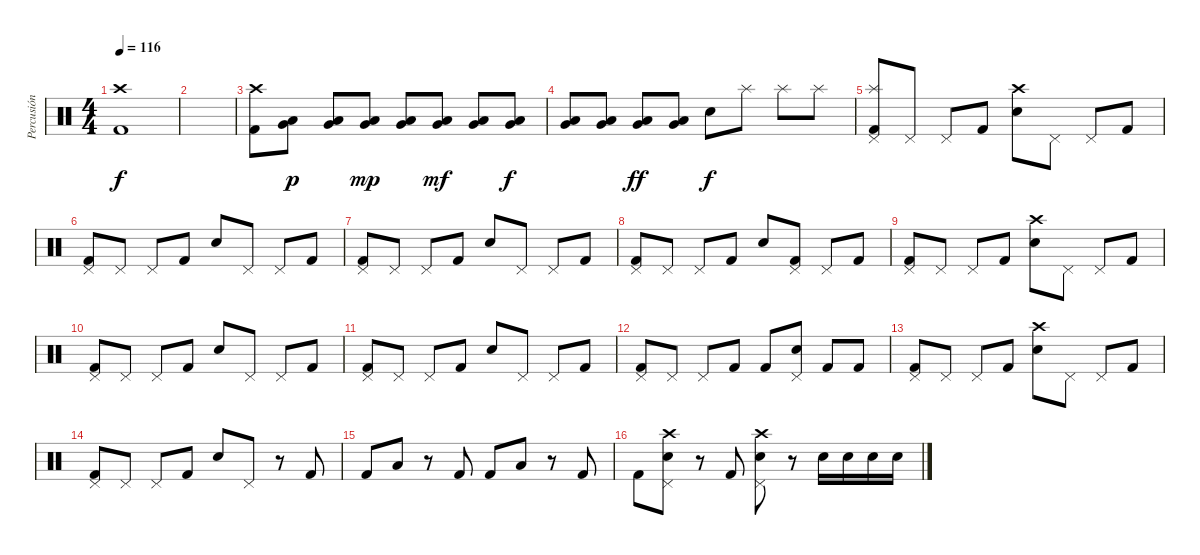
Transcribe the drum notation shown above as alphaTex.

\track ("Percusión" "Percusión") {instrument percussion}
\staff {score}
\articulation defaults
\ts (4 4)
\tempo 116
\clef neutral
\ks c
("Crash high (hit)" "Kick (hit) 2").1{dy f} |
|
("Crash high (hit)" "Kick (hit) 2").8 ("Very Low Tom (hit)" "Low Floor Tom (hit)").8{dy p} ("Very Low Tom (hit)" "Low Floor Tom (hit)").8 ("Very Low Tom (hit)" "Low Floor Tom (hit)").8{dy mp} ("Very Low Tom (hit)" "Low Floor Tom (hit)").8 ("Very Low Tom (hit)" "Low Floor Tom (hit)").8{dy mf} ("Very Low Tom (hit)" "Low Floor Tom (hit)").8 ("Very Low Tom (hit)" "Low Floor Tom (hit)").8{dy f} |
("Very Low Tom (hit)" "Low Floor Tom (hit)").8 ("Very Low Tom (hit)" "Low Floor Tom (hit)").8 ("Very Low Tom (hit)" "Low Floor Tom (hit)").8{dy ff} ("Very Low Tom (hit)" "Low Floor Tom (hit)").8 "Snare (hit) 2".8{dy f} "Splash (hit)".8 "Splash (hit)".8 "Splash (hit)".8 |
("Splash (hit)" "Kick (hit) 2" "Pedal Hi-Hat (hit)").8 "Pedal Hi-Hat (hit)".8 "Pedal Hi-Hat (hit)".8 "Kick (hit) 2".8 ("Crash high (hit)" "Snare (hit) 2").8 "Pedal Hi-Hat (hit)".8 "Pedal Hi-Hat (hit)".8 "Kick (hit) 2".8 |
("Kick (hit) 2" "Pedal Hi-Hat (hit)").8 "Pedal Hi-Hat (hit)".8 "Pedal Hi-Hat (hit)".8 "Kick (hit) 2".8 "Snare (hit) 2".8 "Pedal Hi-Hat (hit)".8 "Pedal Hi-Hat (hit)".8 "Kick (hit) 2".8 |
("Kick (hit) 2" "Pedal Hi-Hat (hit)").8 "Pedal Hi-Hat (hit)".8 "Pedal Hi-Hat (hit)".8 "Kick (hit) 2".8 "Snare (hit) 2".8 "Pedal Hi-Hat (hit)".8 "Pedal Hi-Hat (hit)".8 "Kick (hit) 2".8 |
("Kick (hit) 2" "Pedal Hi-Hat (hit)").8 "Pedal Hi-Hat (hit)".8 "Pedal Hi-Hat (hit)".8 "Kick (hit) 2".8 "Snare (hit) 2".8 ("Kick (hit) 2" "Pedal Hi-Hat (hit)").8 "Pedal Hi-Hat (hit)".8 "Kick (hit) 2".8 |
("Kick (hit) 2" "Pedal Hi-Hat (hit)").8 "Pedal Hi-Hat (hit)".8 "Pedal Hi-Hat (hit)".8 "Kick (hit) 2".8 ("Crash high (hit)" "Snare (hit) 2").8 "Pedal Hi-Hat (hit)".8 "Pedal Hi-Hat (hit)".8 "Kick (hit) 2".8 |
("Kick (hit) 2" "Pedal Hi-Hat (hit)").8 "Pedal Hi-Hat (hit)".8 "Pedal Hi-Hat (hit)".8 "Kick (hit) 2".8 "Snare (hit) 2".8 "Pedal Hi-Hat (hit)".8 "Pedal Hi-Hat (hit)".8 "Kick (hit) 2".8 |
("Kick (hit) 2" "Pedal Hi-Hat (hit)").8 "Pedal Hi-Hat (hit)".8 "Pedal Hi-Hat (hit)".8 "Kick (hit) 2".8 "Snare (hit) 2".8 "Pedal Hi-Hat (hit)".8 "Pedal Hi-Hat (hit)".8 "Kick (hit) 2".8 |
("Kick (hit) 2" "Pedal Hi-Hat (hit)").8 "Pedal Hi-Hat (hit)".8 "Pedal Hi-Hat (hit)".8 "Kick (hit) 2".8 "Kick (hit) 2".8 ("Snare (hit) 2" "Pedal Hi-Hat (hit)").8 "Kick (hit) 2".8 "Kick (hit) 2".8 |
("Kick (hit) 2" "Pedal Hi-Hat (hit)").8 "Pedal Hi-Hat (hit)".8 "Pedal Hi-Hat (hit)".8 "Kick (hit) 2".8 ("Crash high (hit)" "Snare (hit) 2").8 "Pedal Hi-Hat (hit)".8 "Pedal Hi-Hat (hit)".8 "Kick (hit) 2".8 |
("Kick (hit) 2" "Pedal Hi-Hat (hit)").8 "Pedal Hi-Hat (hit)".8 "Pedal Hi-Hat (hit)".8 "Kick (hit) 2".8 "Snare (hit) 2".8 "Pedal Hi-Hat (hit)".8 r.8 "Kick (hit) 2".8 |
"Kick (hit) 2".8 "Low Floor Tom (hit)".8 r.8 "Kick (hit) 2".8 "Kick (hit) 2".8 "Low Floor Tom (hit)".8 r.8 "Kick (hit) 2".8 |
"Kick (hit) 2".8 ("Crash high (hit)" "Snare (hit) 2" "Pedal Hi-Hat (hit)").8 r.8 "Kick (hit) 2".8 ("Crash high (hit)" "Snare (hit) 2" "Pedal Hi-Hat (hit)").8 r.8 "Snare (hit) 2".16 "Snare (hit) 2".16 "Snare (hit) 2".16 "Snare (hit) 2".16
